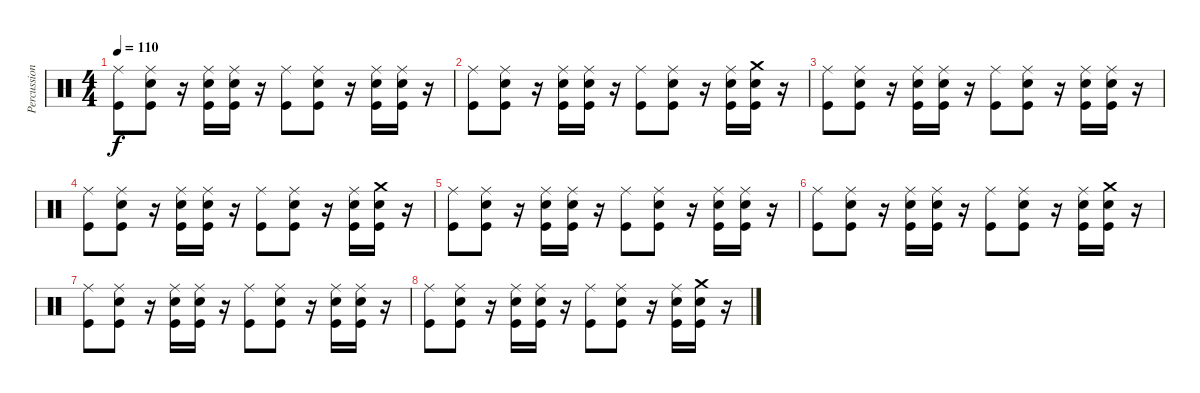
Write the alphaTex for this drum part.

\track ("Percussion" "Percussion") {instrument percussion}
\staff {score}
\articulation defaults
\ts (4 4)
\tempo 110
\clef neutral
\ks c
("Ride (middle)" "Kick (hit)").8{dy f volume 9} ("Snare (hit) 2" "Ride (middle)" "Kick (hit)").8 r.16 ("Snare (hit) 2" "Ride (middle)" "Kick (hit)").16 ("Snare (hit) 2" "Ride (middle)" "Kick (hit)").16 r.16 ("Ride (middle)" "Kick (hit)").8 ("Snare (hit) 2" "Ride (middle)" "Kick (hit)").8 r.16 ("Snare (hit) 2" "Ride (middle)" "Kick (hit)").16 ("Snare (hit) 2" "Ride (middle)" "Kick (hit)").16 r.16 |
("Ride (middle)" "Kick (hit)").8 ("Snare (hit) 2" "Ride (middle)" "Kick (hit)").8 r.16 ("Snare (hit) 2" "Ride (middle)" "Kick (hit)").16 ("Snare (hit) 2" "Ride (middle)" "Kick (hit)").16 r.16 ("Ride (middle)" "Kick (hit)").8 ("Snare (hit) 2" "Ride (middle)" "Kick (hit)").8 r.16 ("Snare (hit) 2" "Ride (middle)" "Kick (hit)").16 ("Snare (hit) 2" "Crash medium (hit)" "Kick (hit)").16 r.16 |
("Ride (middle)" "Kick (hit)").8{volume 6} ("Snare (hit) 2" "Ride (middle)" "Kick (hit)").8 r.16 ("Snare (hit) 2" "Ride (middle)" "Kick (hit)").16 ("Snare (hit) 2" "Ride (middle)" "Kick (hit)").16 r.16 ("Ride (middle)" "Kick (hit)").8 ("Snare (hit) 2" "Ride (middle)" "Kick (hit)").8 r.16 ("Snare (hit) 2" "Ride (middle)" "Kick (hit)").16 ("Snare (hit) 2" "Ride (middle)" "Kick (hit)").16 r.16 |
("Ride (middle)" "Kick (hit)").8 ("Snare (hit) 2" "Ride (middle)" "Kick (hit)").8 r.16 ("Snare (hit) 2" "Ride (middle)" "Kick (hit)").16 ("Snare (hit) 2" "Ride (middle)" "Kick (hit)").16 r.16 ("Ride (middle)" "Kick (hit)").8 ("Snare (hit) 2" "Ride (middle)" "Kick (hit)").8 r.16 ("Snare (hit) 2" "Ride (middle)" "Kick (hit)").16 ("Snare (hit) 2" "Crash medium (hit)" "Kick (hit)").16 r.16 |
("Ride (middle)" "Kick (hit)").8{volume 3} ("Snare (hit) 2" "Ride (middle)" "Kick (hit)").8 r.16 ("Snare (hit) 2" "Ride (middle)" "Kick (hit)").16 ("Snare (hit) 2" "Ride (middle)" "Kick (hit)").16 r.16 ("Ride (middle)" "Kick (hit)").8 ("Snare (hit) 2" "Ride (middle)" "Kick (hit)").8 r.16 ("Snare (hit) 2" "Ride (middle)" "Kick (hit)").16 ("Snare (hit) 2" "Ride (middle)" "Kick (hit)").16 r.16 |
("Ride (middle)" "Kick (hit)").8 ("Snare (hit) 2" "Ride (middle)" "Kick (hit)").8 r.16 ("Snare (hit) 2" "Ride (middle)" "Kick (hit)").16 ("Snare (hit) 2" "Ride (middle)" "Kick (hit)").16 r.16 ("Ride (middle)" "Kick (hit)").8 ("Snare (hit) 2" "Ride (middle)" "Kick (hit)").8 r.16 ("Snare (hit) 2" "Ride (middle)" "Kick (hit)").16 ("Snare (hit) 2" "Crash medium (hit)" "Kick (hit)").16 r.16 |
("Ride (middle)" "Kick (hit)").8{volume 1} ("Snare (hit) 2" "Ride (middle)" "Kick (hit)").8 r.16 ("Snare (hit) 2" "Ride (middle)" "Kick (hit)").16 ("Snare (hit) 2" "Ride (middle)" "Kick (hit)").16 r.16 ("Ride (middle)" "Kick (hit)").8 ("Snare (hit) 2" "Ride (middle)" "Kick (hit)").8 r.16 ("Snare (hit) 2" "Ride (middle)" "Kick (hit)").16 ("Snare (hit) 2" "Ride (middle)" "Kick (hit)").16 r.16 |
("Ride (middle)" "Kick (hit)").8 ("Snare (hit) 2" "Ride (middle)" "Kick (hit)").8 r.16 ("Snare (hit) 2" "Ride (middle)" "Kick (hit)").16 ("Snare (hit) 2" "Ride (middle)" "Kick (hit)").16 r.16 ("Ride (middle)" "Kick (hit)").8 ("Snare (hit) 2" "Ride (middle)" "Kick (hit)").8 r.16 ("Snare (hit) 2" "Ride (middle)" "Kick (hit)").16 ("Snare (hit) 2" "Crash medium (hit)" "Kick (hit)").16 r.16
